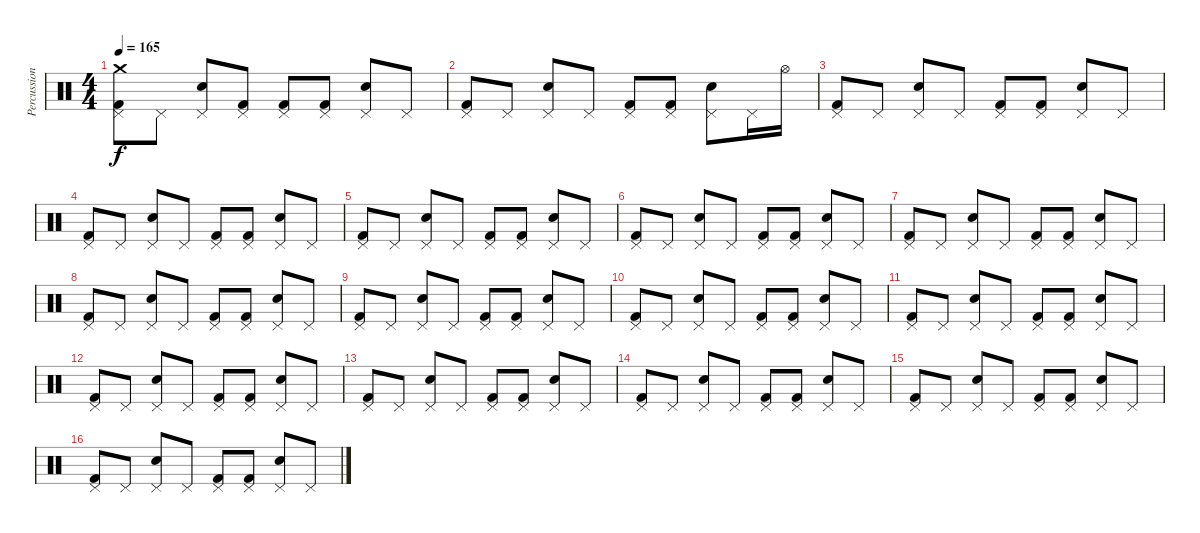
\track ("Percussions" "Percussion") {instrument percussion}
\staff {score}
\articulation defaults
\ts (4 4)
\tempo 165
\clef neutral
\ks c
("Pedal Hi-Hat (hit)" "Kick (hit) 2" "Crash medium (hit)").8{dy f} "Pedal Hi-Hat (hit)".8 ("Pedal Hi-Hat (hit)" "Electric Snare (hit)").8 ("Pedal Hi-Hat (hit)" "Kick (hit) 2").8 ("Pedal Hi-Hat (hit)" "Kick (hit) 2").8 ("Pedal Hi-Hat (hit)" "Kick (hit) 2").8 ("Pedal Hi-Hat (hit)" "Electric Snare (hit)").8 "Pedal Hi-Hat (hit)".8 |
("Pedal Hi-Hat (hit)" "Kick (hit) 2").8 "Pedal Hi-Hat (hit)".8 ("Pedal Hi-Hat (hit)" "Electric Snare (hit)").8 "Pedal Hi-Hat (hit)".8 ("Pedal Hi-Hat (hit)" "Kick (hit) 2").8 ("Pedal Hi-Hat (hit)" "Kick (hit) 2").8 ("Pedal Hi-Hat (hit)" "Electric Snare (hit)").8 "Pedal Hi-Hat (hit)".16 "Hi-Hat (open)".16 |
("Pedal Hi-Hat (hit)" "Kick (hit) 2").8 "Pedal Hi-Hat (hit)".8 ("Pedal Hi-Hat (hit)" "Electric Snare (hit)").8 "Pedal Hi-Hat (hit)".8 ("Pedal Hi-Hat (hit)" "Kick (hit) 2").8 ("Pedal Hi-Hat (hit)" "Kick (hit) 2").8 ("Pedal Hi-Hat (hit)" "Electric Snare (hit)").8 "Pedal Hi-Hat (hit)".8 |
("Pedal Hi-Hat (hit)" "Kick (hit) 2").8 "Pedal Hi-Hat (hit)".8 ("Pedal Hi-Hat (hit)" "Electric Snare (hit)").8 "Pedal Hi-Hat (hit)".8 ("Pedal Hi-Hat (hit)" "Kick (hit) 2").8 ("Pedal Hi-Hat (hit)" "Kick (hit) 2").8 ("Pedal Hi-Hat (hit)" "Electric Snare (hit)").8 "Pedal Hi-Hat (hit)".8 |
("Pedal Hi-Hat (hit)" "Kick (hit) 2").8 "Pedal Hi-Hat (hit)".8 ("Pedal Hi-Hat (hit)" "Electric Snare (hit)").8 "Pedal Hi-Hat (hit)".8 ("Pedal Hi-Hat (hit)" "Kick (hit) 2").8 ("Pedal Hi-Hat (hit)" "Kick (hit) 2").8 ("Pedal Hi-Hat (hit)" "Electric Snare (hit)").8 "Pedal Hi-Hat (hit)".8 |
("Pedal Hi-Hat (hit)" "Kick (hit) 2").8 "Pedal Hi-Hat (hit)".8 ("Pedal Hi-Hat (hit)" "Electric Snare (hit)").8 "Pedal Hi-Hat (hit)".8 ("Pedal Hi-Hat (hit)" "Kick (hit) 2").8 ("Pedal Hi-Hat (hit)" "Kick (hit) 2").8 ("Pedal Hi-Hat (hit)" "Electric Snare (hit)").8 "Pedal Hi-Hat (hit)".8 |
("Pedal Hi-Hat (hit)" "Kick (hit) 2").8 "Pedal Hi-Hat (hit)".8 ("Pedal Hi-Hat (hit)" "Electric Snare (hit)").8 "Pedal Hi-Hat (hit)".8 ("Pedal Hi-Hat (hit)" "Kick (hit) 2").8 ("Pedal Hi-Hat (hit)" "Kick (hit) 2").8 ("Pedal Hi-Hat (hit)" "Electric Snare (hit)").8 "Pedal Hi-Hat (hit)".8 |
("Pedal Hi-Hat (hit)" "Kick (hit) 2").8 "Pedal Hi-Hat (hit)".8 ("Pedal Hi-Hat (hit)" "Electric Snare (hit)").8 "Pedal Hi-Hat (hit)".8 ("Pedal Hi-Hat (hit)" "Kick (hit) 2").8 ("Pedal Hi-Hat (hit)" "Kick (hit) 2").8 ("Pedal Hi-Hat (hit)" "Electric Snare (hit)").8 "Pedal Hi-Hat (hit)".8 |
("Pedal Hi-Hat (hit)" "Kick (hit) 2").8 "Pedal Hi-Hat (hit)".8 ("Pedal Hi-Hat (hit)" "Electric Snare (hit)").8 "Pedal Hi-Hat (hit)".8 ("Pedal Hi-Hat (hit)" "Kick (hit) 2").8 ("Pedal Hi-Hat (hit)" "Kick (hit) 2").8 ("Pedal Hi-Hat (hit)" "Electric Snare (hit)").8 "Pedal Hi-Hat (hit)".8 |
("Pedal Hi-Hat (hit)" "Kick (hit) 2").8 "Pedal Hi-Hat (hit)".8 ("Pedal Hi-Hat (hit)" "Electric Snare (hit)").8 "Pedal Hi-Hat (hit)".8 ("Pedal Hi-Hat (hit)" "Kick (hit) 2").8 ("Pedal Hi-Hat (hit)" "Kick (hit) 2").8 ("Pedal Hi-Hat (hit)" "Electric Snare (hit)").8 "Pedal Hi-Hat (hit)".8 |
("Pedal Hi-Hat (hit)" "Kick (hit) 2").8 "Pedal Hi-Hat (hit)".8 ("Pedal Hi-Hat (hit)" "Electric Snare (hit)").8 "Pedal Hi-Hat (hit)".8 ("Pedal Hi-Hat (hit)" "Kick (hit) 2").8 ("Pedal Hi-Hat (hit)" "Kick (hit) 2").8 ("Pedal Hi-Hat (hit)" "Electric Snare (hit)").8 "Pedal Hi-Hat (hit)".8 |
("Pedal Hi-Hat (hit)" "Kick (hit) 2").8 "Pedal Hi-Hat (hit)".8 ("Pedal Hi-Hat (hit)" "Electric Snare (hit)").8 "Pedal Hi-Hat (hit)".8 ("Pedal Hi-Hat (hit)" "Kick (hit) 2").8 ("Pedal Hi-Hat (hit)" "Kick (hit) 2").8 ("Pedal Hi-Hat (hit)" "Electric Snare (hit)").8 "Pedal Hi-Hat (hit)".8 |
("Pedal Hi-Hat (hit)" "Kick (hit) 2").8 "Pedal Hi-Hat (hit)".8 ("Pedal Hi-Hat (hit)" "Electric Snare (hit)").8 "Pedal Hi-Hat (hit)".8 ("Pedal Hi-Hat (hit)" "Kick (hit) 2").8 ("Pedal Hi-Hat (hit)" "Kick (hit) 2").8 ("Pedal Hi-Hat (hit)" "Electric Snare (hit)").8 "Pedal Hi-Hat (hit)".8 |
("Pedal Hi-Hat (hit)" "Kick (hit) 2").8 "Pedal Hi-Hat (hit)".8 ("Pedal Hi-Hat (hit)" "Electric Snare (hit)").8 "Pedal Hi-Hat (hit)".8 ("Pedal Hi-Hat (hit)" "Kick (hit) 2").8 ("Pedal Hi-Hat (hit)" "Kick (hit) 2").8 ("Pedal Hi-Hat (hit)" "Electric Snare (hit)").8 "Pedal Hi-Hat (hit)".8 |
("Pedal Hi-Hat (hit)" "Kick (hit) 2").8 "Pedal Hi-Hat (hit)".8 ("Pedal Hi-Hat (hit)" "Electric Snare (hit)").8 "Pedal Hi-Hat (hit)".8 ("Pedal Hi-Hat (hit)" "Kick (hit) 2").8 ("Pedal Hi-Hat (hit)" "Kick (hit) 2").8 ("Pedal Hi-Hat (hit)" "Electric Snare (hit)").8 "Pedal Hi-Hat (hit)".8 |
("Pedal Hi-Hat (hit)" "Kick (hit) 2").8 "Pedal Hi-Hat (hit)".8 ("Pedal Hi-Hat (hit)" "Electric Snare (hit)").8 "Pedal Hi-Hat (hit)".8 ("Pedal Hi-Hat (hit)" "Kick (hit) 2").8 ("Pedal Hi-Hat (hit)" "Kick (hit) 2").8 ("Pedal Hi-Hat (hit)" "Electric Snare (hit)").8 "Pedal Hi-Hat (hit)".8
